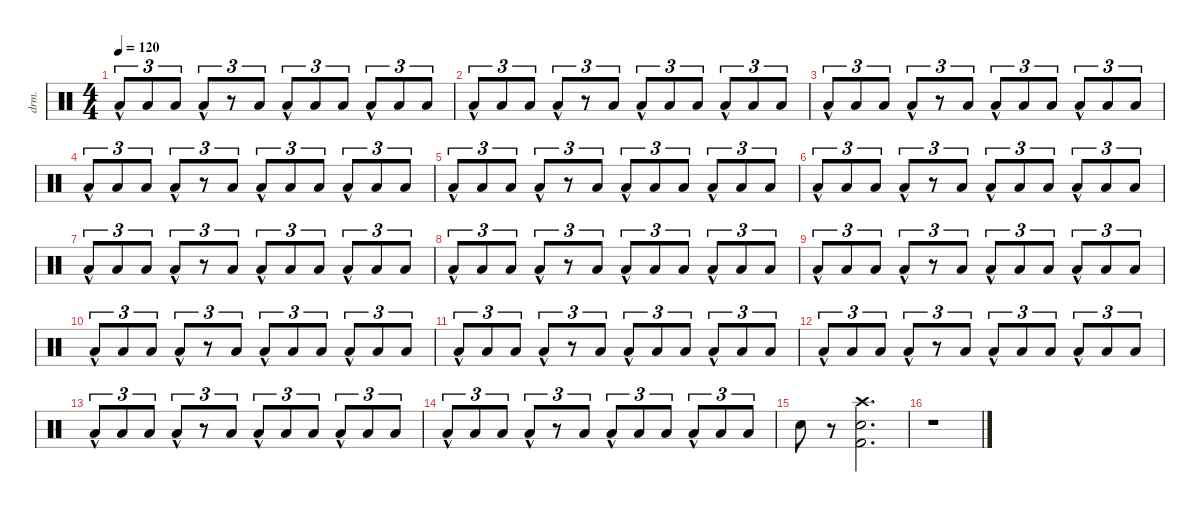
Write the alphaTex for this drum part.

\defaultSystemsLayout 4
\hideDynamics
\bracketExtendMode nobrackets
\otherSystemsTrackNameOrientation horizontal
\track ("Percussion" "drm.") {instrument percussion}
\staff {score}
\articulation defaults
\ts (4 4)
\tempo 120
\clef neutral
\ks c "Low Floor Tom (hit)"{hac}.8{tu (3 2) dy f beam Up} "Low Floor Tom (hit)".8{tu (3 2) beam Up} "Low Floor Tom (hit)".8{tu (3 2) beam Up} "Low Floor Tom (hit)"{hac}.8{tu (3 2) beam Up}
r.8{tu (3 2) beam Up} "Low Floor Tom (hit)".8{tu (3 2) beam Up} "Low Floor Tom (hit)"{hac}.8{tu (3 2) beam Up} "Low Floor Tom (hit)".8{tu (3 2) beam Up} "Low Floor Tom (hit)".8{tu (3 2) beam Up} "Low Floor Tom (hit)"{hac}.8{tu (3 2) beam Up} "Low Floor Tom (hit)".8{tu (3 2) beam Up} "Low Floor Tom (hit)".8{tu (3 2) beam Up} |
"Low Floor Tom (hit)"{hac}.8{tu (3 2) beam Up} "Low Floor Tom (hit)".8{tu (3 2) beam Up} "Low Floor Tom (hit)".8{tu (3 2) beam Up} "Low Floor Tom (hit)"{hac}.8{tu (3 2) beam Up} r.8{tu (3 2) beam Up} "Low Floor Tom (hit)".8{tu (3 2) beam Up} "Low Floor Tom (hit)"{hac}.8{tu (3 2) beam Up} "Low Floor Tom (hit)".8{tu (3 2) beam Up} "Low Floor Tom (hit)".8{tu (3 2) beam Up} "Low Floor Tom (hit)"{hac}.8{tu (3 2) beam Up} "Low Floor Tom (hit)".8{tu (3 2) beam Up} "Low Floor Tom (hit)".8{tu (3 2) beam Up} |
"Low Floor Tom (hit)"{hac}.8{tu (3 2) beam Up} "Low Floor Tom (hit)".8{tu (3 2) beam Up} "Low Floor Tom (hit)".8{tu (3 2) beam Up} "Low Floor Tom (hit)"{hac}.8{tu (3 2) beam Up} r.8{tu (3 2) beam Up} "Low Floor Tom (hit)".8{tu (3 2) beam Up} "Low Floor Tom (hit)"{hac}.8{tu (3 2) beam Up} "Low Floor Tom (hit)".8{tu (3 2) beam Up} "Low Floor Tom (hit)".8{tu (3 2) beam Up} "Low Floor Tom (hit)"{hac}.8{tu (3 2) beam Up} "Low Floor Tom (hit)".8{tu (3 2) beam Up} "Low Floor Tom (hit)".8{tu (3 2) beam Up} |
"Low Floor Tom (hit)"{hac}.8{tu (3 2) beam Up} "Low Floor Tom (hit)".8{tu (3 2) beam Up} "Low Floor Tom (hit)".8{tu (3 2) beam Up} "Low Floor Tom (hit)"{hac}.8{tu (3 2) beam Up} r.8{tu (3 2) beam Up} "Low Floor Tom (hit)".8{tu (3 2) beam Up} "Low Floor Tom (hit)"{hac}.8{tu (3 2) beam Up} "Low Floor Tom (hit)".8{tu (3 2) beam Up} "Low Floor Tom (hit)".8{tu (3 2) beam Up} "Low Floor Tom (hit)"{hac}.8{tu (3 2) beam Up} "Low Floor Tom (hit)".8{tu (3 2) beam Up} "Low Floor Tom (hit)".8{tu (3 2) beam Up} |
"Low Floor Tom (hit)"{hac}.8{tu (3 2) beam Up} "Low Floor Tom (hit)".8{tu (3 2) beam Up} "Low Floor Tom (hit)".8{tu (3 2) beam Up} "Low Floor Tom (hit)"{hac}.8{tu (3 2) beam Up} r.8{tu (3 2) beam Up} "Low Floor Tom (hit)".8{tu (3 2) beam Up} "Low Floor Tom (hit)"{hac}.8{tu (3 2) beam Up} "Low Floor Tom (hit)".8{tu (3 2) beam Up} "Low Floor Tom (hit)".8{tu (3 2) beam Up} "Low Floor Tom (hit)"{hac}.8{tu (3 2) beam Up} "Low Floor Tom (hit)".8{tu (3 2) beam Up} "Low Floor Tom (hit)".8{tu (3 2) beam Up} |
"Low Floor Tom (hit)"{hac}.8{tu (3 2) beam Up} "Low Floor Tom (hit)".8{tu (3 2) beam Up} "Low Floor Tom (hit)".8{tu (3 2) beam Up} "Low Floor Tom (hit)"{hac}.8{tu (3 2) beam Up} r.8{tu (3 2) beam Up} "Low Floor Tom (hit)".8{tu (3 2) beam Up} "Low Floor Tom (hit)"{hac}.8{tu (3 2) beam Up} "Low Floor Tom (hit)".8{tu (3 2) beam Up} "Low Floor Tom (hit)".8{tu (3 2) beam Up} "Low Floor Tom (hit)"{hac}.8{tu (3 2) beam Up} "Low Floor Tom (hit)".8{tu (3 2) beam Up} "Low Floor Tom (hit)".8{tu (3 2) beam Up} |
"Low Floor Tom (hit)"{hac}.8{tu (3 2) beam Up} "Low Floor Tom (hit)".8{tu (3 2) beam Up} "Low Floor Tom (hit)".8{tu (3 2) beam Up} "Low Floor Tom (hit)"{hac}.8{tu (3 2) beam Up} r.8{tu (3 2) beam Up} "Low Floor Tom (hit)".8{tu (3 2) beam Up} "Low Floor Tom (hit)"{hac}.8{tu (3 2) beam Up} "Low Floor Tom (hit)".8{tu (3 2) beam Up} "Low Floor Tom (hit)".8{tu (3 2) beam Up} "Low Floor Tom (hit)"{hac}.8{tu (3 2) beam Up} "Low Floor Tom (hit)".8{tu (3 2) beam Up} "Low Floor Tom (hit)".8{tu (3 2) beam Up} |
"Low Floor Tom (hit)"{hac}.8{tu (3 2) beam Up} "Low Floor Tom (hit)".8{tu (3 2) beam Up} "Low Floor Tom (hit)".8{tu (3 2) beam Up} "Low Floor Tom (hit)"{hac}.8{tu (3 2) beam Up} r.8{tu (3 2) beam Up} "Low Floor Tom (hit)".8{tu (3 2) beam Up} "Low Floor Tom (hit)"{hac}.8{tu (3 2) beam Up} "Low Floor Tom (hit)".8{tu (3 2) beam Up} "Low Floor Tom (hit)".8{tu (3 2) beam Up} "Low Floor Tom (hit)"{hac}.8{tu (3 2) beam Up} "Low Floor Tom (hit)".8{tu (3 2) beam Up} "Low Floor Tom (hit)".8{tu (3 2) beam Up} |
"Low Floor Tom (hit)"{hac}.8{tu (3 2) beam Up} "Low Floor Tom (hit)".8{tu (3 2) beam Up} "Low Floor Tom (hit)".8{tu (3 2) beam Up} "Low Floor Tom (hit)"{hac}.8{tu (3 2) beam Up} r.8{tu (3 2) beam Up} "Low Floor Tom (hit)".8{tu (3 2) beam Up} "Low Floor Tom (hit)"{hac}.8{tu (3 2) beam Up} "Low Floor Tom (hit)".8{tu (3 2) beam Up} "Low Floor Tom (hit)".8{tu (3 2) beam Up} "Low Floor Tom (hit)"{hac}.8{tu (3 2) beam Up} "Low Floor Tom (hit)".8{tu (3 2) beam Up} "Low Floor Tom (hit)".8{tu (3 2) beam Up} |
"Low Floor Tom (hit)"{hac}.8{tu (3 2) beam Up} "Low Floor Tom (hit)".8{tu (3 2) beam Up} "Low Floor Tom (hit)".8{tu (3 2) beam Up} "Low Floor Tom (hit)"{hac}.8{tu (3 2) beam Up} r.8{tu (3 2) beam Up} "Low Floor Tom (hit)".8{tu (3 2) beam Up} "Low Floor Tom (hit)"{hac}.8{tu (3 2) beam Up} "Low Floor Tom (hit)".8{tu (3 2) beam Up} "Low Floor Tom (hit)".8{tu (3 2) beam Up} "Low Floor Tom (hit)"{hac}.8{tu (3 2) beam Up} "Low Floor Tom (hit)".8{tu (3 2) beam Up} "Low Floor Tom (hit)".8{tu (3 2) beam Up} |
"Low Floor Tom (hit)"{hac}.8{tu (3 2) beam Up} "Low Floor Tom (hit)".8{tu (3 2) beam Up} "Low Floor Tom (hit)".8{tu (3 2) beam Up} "Low Floor Tom (hit)"{hac}.8{tu (3 2) beam Up} r.8{tu (3 2) beam Up} "Low Floor Tom (hit)".8{tu (3 2) beam Up} "Low Floor Tom (hit)"{hac}.8{tu (3 2) beam Up} "Low Floor Tom (hit)".8{tu (3 2) beam Up} "Low Floor Tom (hit)".8{tu (3 2) beam Up} "Low Floor Tom (hit)"{hac}.8{tu (3 2) beam Up} "Low Floor Tom (hit)".8{tu (3 2) beam Up} "Low Floor Tom (hit)".8{tu (3 2) beam Up} |
"Low Floor Tom (hit)"{hac}.8{tu (3 2) beam Up} "Low Floor Tom (hit)".8{tu (3 2) beam Up} "Low Floor Tom (hit)".8{tu (3 2) beam Up} "Low Floor Tom (hit)"{hac}.8{tu (3 2) beam Up} r.8{tu (3 2) beam Up} "Low Floor Tom (hit)".8{tu (3 2) beam Up} "Low Floor Tom (hit)"{hac}.8{tu (3 2) beam Up} "Low Floor Tom (hit)".8{tu (3 2) beam Up} "Low Floor Tom (hit)".8{tu (3 2) beam Up} "Low Floor Tom (hit)"{hac}.8{tu (3 2) beam Up} "Low Floor Tom (hit)".8{tu (3 2) beam Up} "Low Floor Tom (hit)".8{tu (3 2) beam Up} |
"Low Floor Tom (hit)"{hac}.8{tu (3 2) beam Up} "Low Floor Tom (hit)".8{tu (3 2) beam Up} "Low Floor Tom (hit)".8{tu (3 2) beam Up} "Low Floor Tom (hit)"{hac}.8{tu (3 2) beam Up} r.8{tu (3 2) beam Up} "Low Floor Tom (hit)".8{tu (3 2) beam Up} "Low Floor Tom (hit)"{hac}.8{tu (3 2) beam Up} "Low Floor Tom (hit)".8{tu (3 2) beam Up} "Low Floor Tom (hit)".8{tu (3 2) beam Up} "Low Floor Tom (hit)"{hac}.8{tu (3 2) beam Up} "Low Floor Tom (hit)".8{tu (3 2) beam Up} "Low Floor Tom (hit)".8{tu (3 2) beam Up} |
"Low Floor Tom (hit)"{hac}.8{tu (3 2) beam Up} "Low Floor Tom (hit)".8{tu (3 2) beam Up} "Low Floor Tom (hit)".8{tu (3 2) beam Up} "Low Floor Tom (hit)"{hac}.8{tu (3 2) beam Up} r.8{tu (3 2) beam Up} "Low Floor Tom (hit)".8{tu (3 2) beam Up} "Low Floor Tom (hit)"{hac}.8{tu (3 2) beam Up} "Low Floor Tom (hit)".8{tu (3 2) beam Up} "Low Floor Tom (hit)".8{tu (3 2) beam Up} "Low Floor Tom (hit)"{hac}.8{tu (3 2) beam Up} "Low Floor Tom (hit)".8{tu (3 2) beam Up} "Low Floor Tom (hit)".8{tu (3 2) beam Up} |
"Snare (hit) 2".8{beam Down} r.8{beam Down} ("Crash high (hit)" "Snare (hit) 2" "Kick (hit) 2").2{d beam Down} |
r.1{beam Down}
